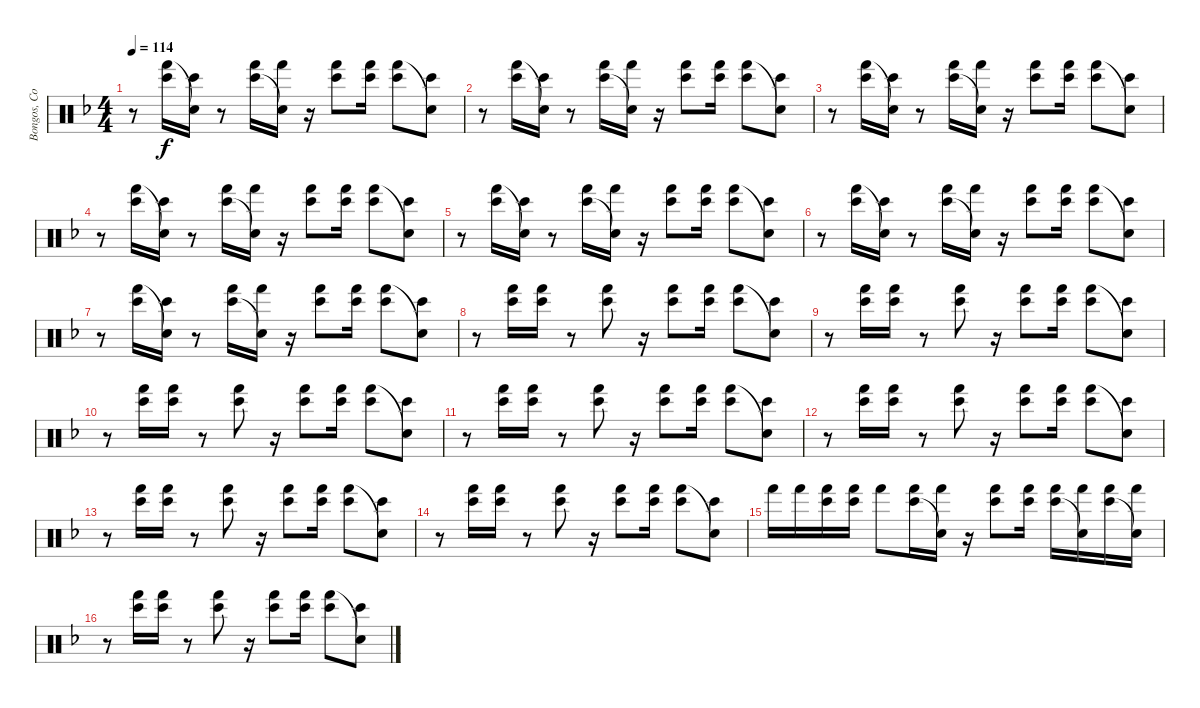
\track ("Bongos, Congas, Timbales" "Bongos, Co") {instrument percussion}
\staff {score}
\articulation defaults
\ts (4 4)
\tempo 114
\clef neutral
\ks f
r.8{dy f} ("Bongo High (hit)" "Hand (hit)").16 ("Bongo High (hit)" "Snare (hit)"{t}).16 r.8 ("Bongo High (hit)" "Hand (hit)").16 ("Snare (hit)"{t} "Hand (hit)").16 r.16 ("Bongo High (hit)" "Hand (hit)").8 ("Bongo High (hit)" "Hand (hit)").16 ("Bongo High (hit)" "Hand (hit)").8 ("Bongo High (hit)" "Snare (hit)"{t}).8 |
r.8 ("Bongo High (hit)" "Hand (hit)").16 ("Bongo High (hit)" "Snare (hit)"{t}).16 r.8 ("Bongo High (hit)" "Hand (hit)").16 ("Snare (hit)"{t} "Hand (hit)").16 r.16 ("Bongo High (hit)" "Hand (hit)").8 ("Bongo High (hit)" "Hand (hit)").16 ("Bongo High (hit)" "Hand (hit)").8 ("Bongo High (hit)" "Snare (hit)"{t}).8 |
r.8 ("Bongo High (hit)" "Hand (hit)").16 ("Bongo High (hit)" "Snare (hit)"{t}).16 r.8 ("Bongo High (hit)" "Hand (hit)").16 ("Snare (hit)"{t} "Hand (hit)").16 r.16 ("Bongo High (hit)" "Hand (hit)").8 ("Bongo High (hit)" "Hand (hit)").16 ("Bongo High (hit)" "Hand (hit)").8 ("Bongo High (hit)" "Snare (hit)"{t}).8 |
r.8 ("Bongo High (hit)" "Hand (hit)").16 ("Bongo High (hit)" "Snare (hit)"{t}).16 r.8 ("Bongo High (hit)" "Hand (hit)").16 ("Snare (hit)"{t} "Hand (hit)").16 r.16 ("Bongo High (hit)" "Hand (hit)").8 ("Bongo High (hit)" "Hand (hit)").16 ("Bongo High (hit)" "Hand (hit)").8 ("Bongo High (hit)" "Snare (hit)"{t}).8 |
r.8 ("Bongo High (hit)" "Hand (hit)").16 ("Bongo High (hit)" "Snare (hit)"{t}).16 r.8 ("Bongo High (hit)" "Hand (hit)").16 ("Snare (hit)"{t} "Hand (hit)").16 r.16 ("Bongo High (hit)" "Hand (hit)").8 ("Bongo High (hit)" "Hand (hit)").16 ("Bongo High (hit)" "Hand (hit)").8 ("Bongo High (hit)" "Snare (hit)"{t}).8 |
r.8 ("Bongo High (hit)" "Hand (hit)").16 ("Bongo High (hit)" "Snare (hit)"{t}).16 r.8 ("Bongo High (hit)" "Hand (hit)").16 ("Snare (hit)"{t} "Hand (hit)").16 r.16 ("Bongo High (hit)" "Hand (hit)").8 ("Bongo High (hit)" "Hand (hit)").16 ("Bongo High (hit)" "Hand (hit)").8 ("Bongo High (hit)" "Snare (hit)"{t}).8 |
r.8 ("Bongo High (hit)" "Hand (hit)").16 ("Bongo High (hit)" "Snare (hit)"{t}).16 r.8 ("Bongo High (hit)" "Hand (hit)").16 ("Snare (hit)"{t} "Hand (hit)").16 r.16 ("Bongo High (hit)" "Hand (hit)").8 ("Bongo High (hit)" "Hand (hit)").16 ("Bongo High (hit)" "Hand (hit)").8 ("Bongo High (hit)" "Snare (hit)"{t}).8 |
r.8 ("Bongo High (hit)" "Hand (hit)").16 ("Bongo High (hit)" "Hand (hit)").16 r.8 ("Bongo High (hit)" "Hand (hit)").8 r.16 ("Bongo High (hit)" "Hand (hit)").8 ("Bongo High (hit)" "Hand (hit)").16 ("Bongo High (hit)" "Hand (hit)").8 ("Bongo High (hit)" "Snare (hit)"{t}).8 |
r.8 ("Bongo High (hit)" "Hand (hit)").16 ("Bongo High (hit)" "Hand (hit)").16 r.8 ("Bongo High (hit)" "Hand (hit)").8 r.16 ("Bongo High (hit)" "Hand (hit)").8 ("Bongo High (hit)" "Hand (hit)").16 ("Bongo High (hit)" "Hand (hit)").8 ("Bongo High (hit)" "Snare (hit)"{t}).8 |
r.8 ("Bongo High (hit)" "Hand (hit)").16 ("Bongo High (hit)" "Hand (hit)").16 r.8 ("Bongo High (hit)" "Hand (hit)").8 r.16 ("Bongo High (hit)" "Hand (hit)").8 ("Bongo High (hit)" "Hand (hit)").16 ("Bongo High (hit)" "Hand (hit)").8 ("Bongo High (hit)" "Snare (hit)"{t}).8 |
r.8 ("Bongo High (hit)" "Hand (hit)").16 ("Bongo High (hit)" "Hand (hit)").16 r.8 ("Bongo High (hit)" "Hand (hit)").8 r.16 ("Bongo High (hit)" "Hand (hit)").8 ("Bongo High (hit)" "Hand (hit)").16 ("Bongo High (hit)" "Hand (hit)").8 ("Bongo High (hit)" "Snare (hit)"{t}).8 |
r.8 ("Bongo High (hit)" "Hand (hit)").16 ("Bongo High (hit)" "Hand (hit)").16 r.8 ("Bongo High (hit)" "Hand (hit)").8 r.16 ("Bongo High (hit)" "Hand (hit)").8 ("Bongo High (hit)" "Hand (hit)").16 ("Bongo High (hit)" "Hand (hit)").8 ("Bongo High (hit)" "Snare (hit)"{t}).8 |
r.8 ("Bongo High (hit)" "Hand (hit)").16 ("Bongo High (hit)" "Hand (hit)").16 r.8 ("Bongo High (hit)" "Hand (hit)").8 r.16 ("Bongo High (hit)" "Hand (hit)").8 ("Bongo High (hit)" "Hand (hit)").16 ("Bongo High (hit)" "Hand (hit)").8 ("Bongo High (hit)" "Snare (hit)"{t}).8 |
r.8 ("Bongo High (hit)" "Hand (hit)").16 ("Bongo High (hit)" "Hand (hit)").16 r.8 ("Bongo High (hit)" "Hand (hit)").8 r.16 ("Bongo High (hit)" "Hand (hit)").8 ("Bongo High (hit)" "Hand (hit)").16 ("Bongo High (hit)" "Hand (hit)").8 ("Bongo High (hit)" "Snare (hit)"{t}).8 |
"Hand (hit)".16 "Hand (hit)".16 ("Bongo High (hit)" "Hand (hit)").16 ("Bongo High (hit)" "Hand (hit)").16 "Hand (hit)".8 ("Bongo High (hit)" "Hand (hit)").16 ("Snare (hit)"{t} "Hand (hit)").16 r.16 ("Bongo High (hit)" "Hand (hit)").8 ("Bongo High (hit)" "Hand (hit)").16 ("Bongo High (hit)" "Hand (hit)").16 ("Snare (hit)"{t} "Hand (hit)").16 ("Bongo High (hit)" "Hand (hit)").16 ("Metronome (bell)"{t} "Hand (hit)").16 |
r.8 ("Bongo High (hit)" "Hand (hit)").16 ("Bongo High (hit)" "Hand (hit)").16 r.8 ("Bongo High (hit)" "Hand (hit)").8 r.16 ("Bongo High (hit)" "Hand (hit)").8 ("Bongo High (hit)" "Hand (hit)").16 ("Bongo High (hit)" "Hand (hit)").8 ("Bongo High (hit)" "Snare (hit)"{t}).8
